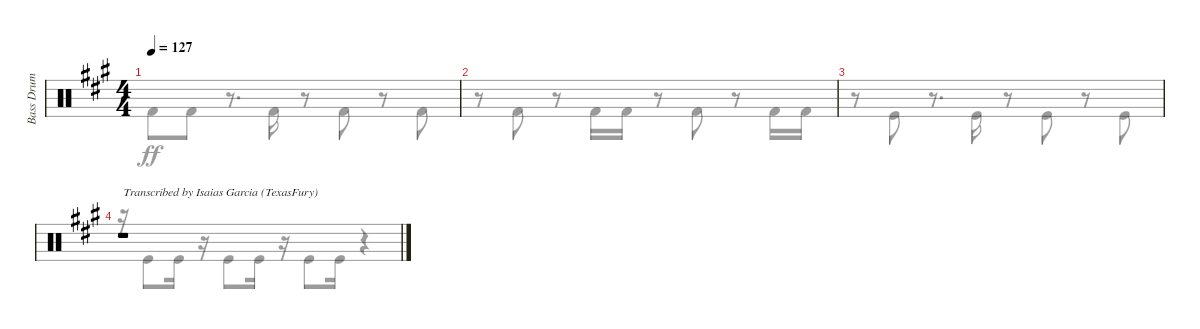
\track ("Bass Drum" "Bass Drum") {instrument percussion}
\staff {score}
\articulation defaults
\voice
\ts (4 4)
\tempo 127
\clef neutral
\ks a
|
|
|
r.1{txt "Transcribed by Isaias Garcia (TexasFury)"}
\voice
\clef neutral
\ottava regular
\simile none
\ks a "Kick (hit) 2".8{dy ff} "Kick (hit) 2".8
r.8{d} "Kick (hit) 2".16 r.8 "Kick (hit) 2".8 r.8 "Kick (hit) 2".8 |
r.8 "Kick (hit) 2".8 r.8 "Kick (hit) 2".16 "Kick (hit) 2".16 r.8 "Kick (hit) 2".8 r.8 "Kick (hit) 2".16 "Kick (hit) 2".16 |
r.8 "Kick (hit)".8 r.8{d} "Kick (hit)".16 r.8 "Kick (hit)".8 r.8 "Kick (hit)".8 |
r.16 "Kick (hit)".8 "Kick (hit)".16 r.16 "Kick (hit)".8 "Kick (hit)".16 r.16 "Kick (hit)".8 "Kick (hit)".16 r.4
